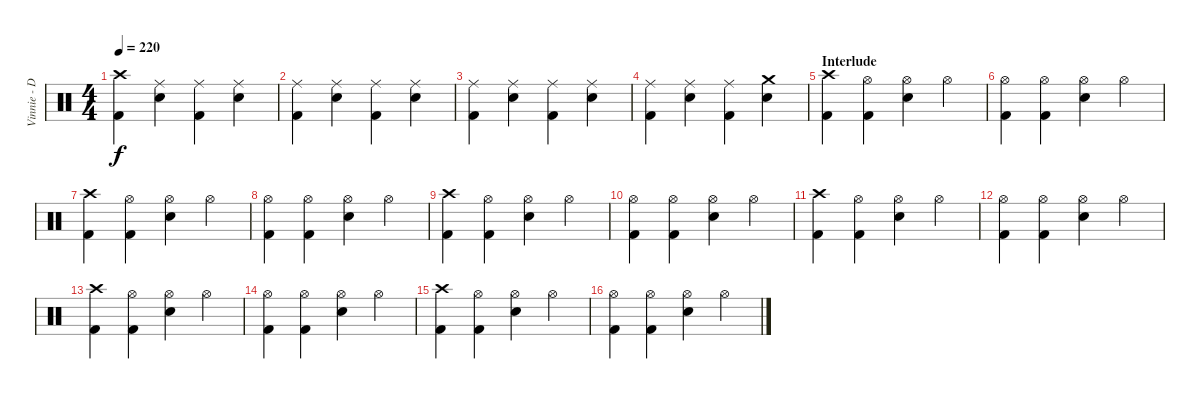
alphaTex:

\track ("Vinnie - Drums" "Vinnie - D") {instrument percussion}
\staff {score}
\articulation defaults
\ts (4 4)
\tempo 220
\clef neutral
\ks c
("Crash high (hit)" "Kick (hit) 2").4{dy f} ("Ride (middle)" "Electric Snare (hit)").4 ("Ride (middle)" "Kick (hit) 2").4 ("Ride (middle)" "Electric Snare (hit)").4 |
("Ride (middle)" "Kick (hit) 2").4 ("Ride (middle)" "Electric Snare (hit)").4 ("Ride (middle)" "Kick (hit) 2").4 ("Ride (middle)" "Electric Snare (hit)").4 |
("Ride (middle)" "Kick (hit) 2").4 ("Ride (middle)" "Electric Snare (hit)").4 ("Ride (middle)" "Kick (hit) 2").4 ("Ride (middle)" "Electric Snare (hit)").4 |
("Ride (middle)" "Kick (hit) 2").4 ("Ride (middle)" "Electric Snare (hit)").4 ("Ride (middle)" "Kick (hit) 2").4 ("Crash medium (hit)" "Electric Snare (hit)").4 |
\section ("" "Interlude")
("Crash high (hit)" "Kick (hit) 2").4 ("Hi-Hat (open)" "Kick (hit) 2").4 ("Hi-Hat (open)" "Electric Snare (hit)").4 "Hi-Hat (open)".4 |
("Hi-Hat (open)" "Kick (hit) 2").4 ("Hi-Hat (open)" "Kick (hit) 2").4 ("Hi-Hat (open)" "Electric Snare (hit)").4 "Hi-Hat (open)".4 |
("Crash high (hit)" "Kick (hit) 2").4 ("Hi-Hat (open)" "Kick (hit) 2").4 ("Hi-Hat (open)" "Electric Snare (hit)").4 "Hi-Hat (open)".4 |
("Hi-Hat (open)" "Kick (hit) 2").4 ("Hi-Hat (open)" "Kick (hit) 2").4 ("Hi-Hat (open)" "Electric Snare (hit)").4 "Hi-Hat (open)".4 |
("Crash high (hit)" "Kick (hit) 2").4 ("Hi-Hat (open)" "Kick (hit) 2").4 ("Hi-Hat (open)" "Electric Snare (hit)").4 "Hi-Hat (open)".4 |
("Hi-Hat (open)" "Kick (hit) 2").4 ("Hi-Hat (open)" "Kick (hit) 2").4 ("Hi-Hat (open)" "Electric Snare (hit)").4 "Hi-Hat (open)".4 |
("Crash high (hit)" "Kick (hit) 2").4 ("Hi-Hat (open)" "Kick (hit) 2").4 ("Hi-Hat (open)" "Electric Snare (hit)").4 "Hi-Hat (open)".4 |
("Hi-Hat (open)" "Kick (hit) 2").4 ("Hi-Hat (open)" "Kick (hit) 2").4 ("Hi-Hat (open)" "Electric Snare (hit)").4 "Hi-Hat (open)".4 |
("Crash high (hit)" "Kick (hit) 2").4 ("Hi-Hat (open)" "Kick (hit) 2").4 ("Hi-Hat (open)" "Electric Snare (hit)").4 "Hi-Hat (open)".4 |
("Hi-Hat (open)" "Kick (hit) 2").4 ("Hi-Hat (open)" "Kick (hit) 2").4 ("Hi-Hat (open)" "Electric Snare (hit)").4 "Hi-Hat (open)".4 |
("Crash high (hit)" "Kick (hit) 2").4 ("Hi-Hat (open)" "Kick (hit) 2").4 ("Hi-Hat (open)" "Electric Snare (hit)").4 "Hi-Hat (open)".4 |
("Hi-Hat (open)" "Kick (hit) 2").4 ("Hi-Hat (open)" "Kick (hit) 2").4 ("Hi-Hat (open)" "Electric Snare (hit)").4 "Hi-Hat (open)".4
